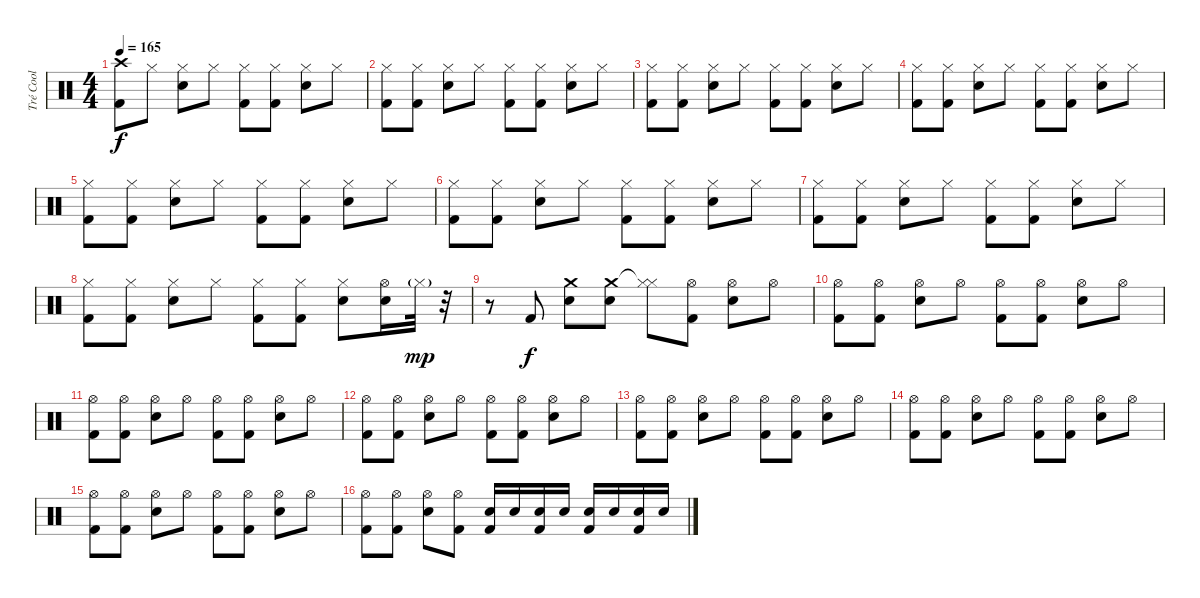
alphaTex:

\track ("Tré Cool" "Tré Cool") {instrument percussion}
\staff {score}
\articulation defaults
\ts (4 4)
\tempo 165
\clef neutral
\ks c
("Crash high (hit)" "Kick (hit) 2").8{dy f} "Hi-Hat (closed)".8 ("Hi-Hat (closed)" "Electric Snare (hit)").8 "Hi-Hat (closed)".8 ("Hi-Hat (closed)" "Kick (hit) 2").8 ("Hi-Hat (closed)" "Kick (hit) 2").8 ("Hi-Hat (closed)" "Electric Snare (hit)").8 "Hi-Hat (closed)".8 |
("Hi-Hat (closed)" "Kick (hit) 2").8 ("Hi-Hat (closed)" "Kick (hit) 2").8 ("Hi-Hat (closed)" "Electric Snare (hit)").8 "Hi-Hat (closed)".8 ("Hi-Hat (closed)" "Kick (hit) 2").8 ("Hi-Hat (closed)" "Kick (hit) 2").8 ("Hi-Hat (closed)" "Electric Snare (hit)").8 "Hi-Hat (closed)".8 |
("Hi-Hat (closed)" "Kick (hit) 2").8 ("Hi-Hat (closed)" "Kick (hit) 2").8 ("Hi-Hat (closed)" "Electric Snare (hit)").8 "Hi-Hat (closed)".8 ("Hi-Hat (closed)" "Kick (hit) 2").8 ("Hi-Hat (closed)" "Kick (hit) 2").8 ("Hi-Hat (closed)" "Electric Snare (hit)").8 "Hi-Hat (closed)".8 |
("Hi-Hat (closed)" "Kick (hit) 2").8 ("Hi-Hat (closed)" "Kick (hit) 2").8 ("Hi-Hat (closed)" "Electric Snare (hit)").8 "Hi-Hat (closed)".8 ("Hi-Hat (closed)" "Kick (hit) 2").8 ("Hi-Hat (closed)" "Kick (hit) 2").8 ("Hi-Hat (closed)" "Electric Snare (hit)").8 "Hi-Hat (closed)".8 |
("Hi-Hat (closed)" "Kick (hit) 2").8 ("Hi-Hat (closed)" "Kick (hit) 2").8 ("Hi-Hat (closed)" "Electric Snare (hit)").8 "Hi-Hat (closed)".8 ("Hi-Hat (closed)" "Kick (hit) 2").8 ("Hi-Hat (closed)" "Kick (hit) 2").8 ("Hi-Hat (closed)" "Electric Snare (hit)").8 "Hi-Hat (closed)".8 |
("Hi-Hat (closed)" "Kick (hit) 2").8 ("Hi-Hat (closed)" "Kick (hit) 2").8 ("Hi-Hat (closed)" "Electric Snare (hit)").8 "Hi-Hat (closed)".8 ("Hi-Hat (closed)" "Kick (hit) 2").8 ("Hi-Hat (closed)" "Kick (hit) 2").8 ("Hi-Hat (closed)" "Electric Snare (hit)").8 "Hi-Hat (closed)".8 |
("Hi-Hat (closed)" "Kick (hit) 2").8 ("Hi-Hat (closed)" "Kick (hit) 2").8 ("Hi-Hat (closed)" "Electric Snare (hit)").8 "Hi-Hat (closed)".8 ("Hi-Hat (closed)" "Kick (hit) 2").8 ("Hi-Hat (closed)" "Kick (hit) 2").8 ("Hi-Hat (closed)" "Electric Snare (hit)").8 "Hi-Hat (closed)".8 |
("Hi-Hat (closed)" "Kick (hit) 2").8 ("Hi-Hat (closed)" "Kick (hit) 2").8 ("Hi-Hat (closed)" "Electric Snare (hit)").8 "Hi-Hat (closed)".8 ("Hi-Hat (closed)" "Kick (hit) 2").8 ("Hi-Hat (closed)" "Kick (hit) 2").8 ("Hi-Hat (closed)" "Electric Snare (hit)").8 ("Hi-Hat (open)" "Electric Snare (hit)").16 "Hi-Hat (closed)"{g}.32{dy mp} r.32 |
r.8 "Kick (hit) 2".8{dy f} ("Crash medium (hit)" "Electric Snare (hit)").8 ("Crash medium (hit)" "Electric Snare (hit)").8 ("Hi-Hat (closed)"{t} "Hi-Hat (closed)").8 ("Hi-Hat (open)" "Kick (hit) 2").8 ("Hi-Hat (open)" "Electric Snare (hit)").8 "Hi-Hat (open)".8 |
("Hi-Hat (open)" "Kick (hit) 2").8 ("Hi-Hat (open)" "Kick (hit) 2").8 ("Hi-Hat (open)" "Electric Snare (hit)").8 "Hi-Hat (open)".8 ("Hi-Hat (open)" "Kick (hit) 2").8 ("Hi-Hat (open)" "Kick (hit) 2").8 ("Hi-Hat (open)" "Electric Snare (hit)").8 "Hi-Hat (open)".8 |
("Hi-Hat (open)" "Kick (hit) 2").8 ("Hi-Hat (open)" "Kick (hit) 2").8 ("Hi-Hat (open)" "Electric Snare (hit)").8 "Hi-Hat (open)".8 ("Hi-Hat (open)" "Kick (hit) 2").8 ("Hi-Hat (open)" "Kick (hit) 2").8 ("Hi-Hat (open)" "Electric Snare (hit)").8 "Hi-Hat (open)".8 |
("Hi-Hat (open)" "Kick (hit) 2").8 ("Hi-Hat (open)" "Kick (hit) 2").8 ("Hi-Hat (open)" "Electric Snare (hit)").8 "Hi-Hat (open)".8 ("Hi-Hat (open)" "Kick (hit) 2").8 ("Hi-Hat (open)" "Kick (hit) 2").8 ("Hi-Hat (open)" "Electric Snare (hit)").8 "Hi-Hat (open)".8 |
("Hi-Hat (open)" "Kick (hit) 2").8 ("Hi-Hat (open)" "Kick (hit) 2").8 ("Hi-Hat (open)" "Electric Snare (hit)").8 "Hi-Hat (open)".8 ("Hi-Hat (open)" "Kick (hit) 2").8 ("Hi-Hat (open)" "Kick (hit) 2").8 ("Hi-Hat (open)" "Electric Snare (hit)").8 "Hi-Hat (open)".8 |
("Hi-Hat (open)" "Kick (hit) 2").8 ("Hi-Hat (open)" "Kick (hit) 2").8 ("Hi-Hat (open)" "Electric Snare (hit)").8 "Hi-Hat (open)".8 ("Hi-Hat (open)" "Kick (hit) 2").8 ("Hi-Hat (open)" "Kick (hit) 2").8 ("Hi-Hat (open)" "Electric Snare (hit)").8 "Hi-Hat (open)".8 |
("Hi-Hat (open)" "Kick (hit) 2").8 ("Hi-Hat (open)" "Kick (hit) 2").8 ("Hi-Hat (open)" "Electric Snare (hit)").8 "Hi-Hat (open)".8 ("Hi-Hat (open)" "Kick (hit) 2").8 ("Hi-Hat (open)" "Kick (hit) 2").8 ("Hi-Hat (open)" "Electric Snare (hit)").8 "Hi-Hat (open)".8 |
("Hi-Hat (open)" "Kick (hit) 2").8 ("Hi-Hat (open)" "Kick (hit) 2").8 ("Hi-Hat (open)" "Electric Snare (hit)").8 ("Hi-Hat (open)" "Kick (hit) 2").8 ("Electric Snare (hit)" "Kick (hit) 2").16 "Electric Snare (hit)".16 ("Electric Snare (hit)" "Kick (hit) 2").16 "Electric Snare (hit)".16 ("Electric Snare (hit)" "Kick (hit) 2").16 "Electric Snare (hit)".16 ("Electric Snare (hit)" "Kick (hit) 2").16 "Electric Snare (hit)".16
